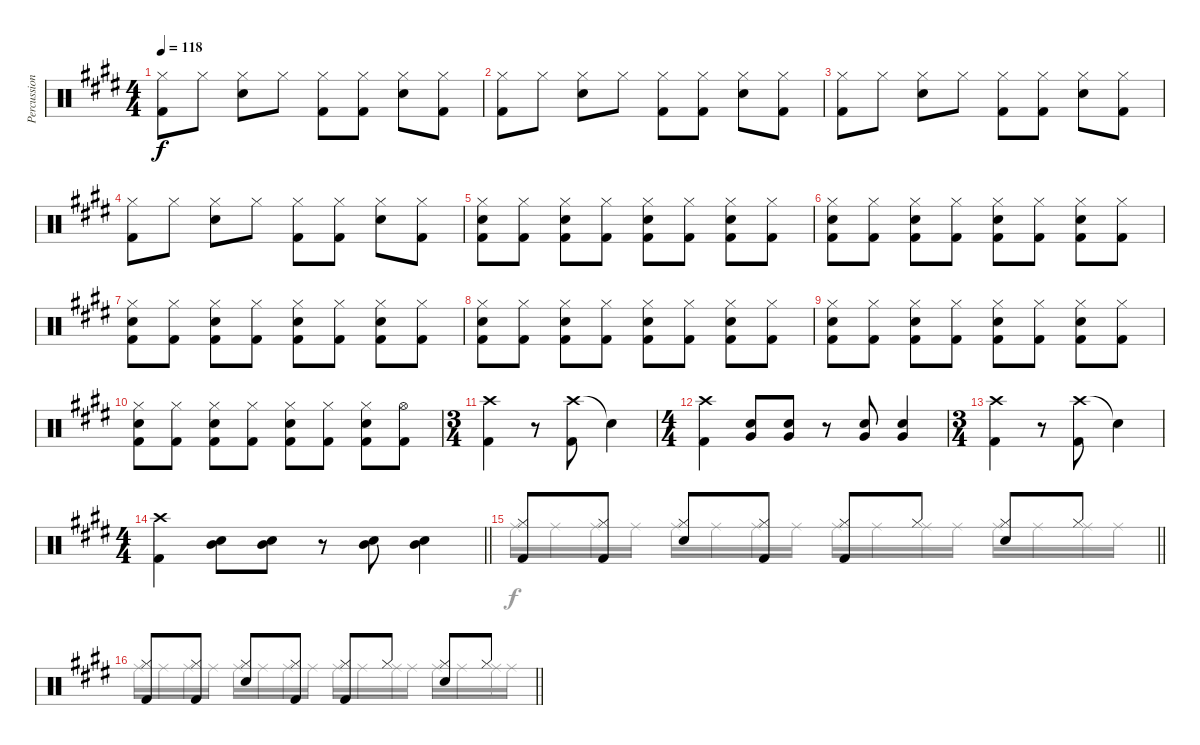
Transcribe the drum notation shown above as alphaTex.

\track ("Percussion" "Percussion") {instrument percussion}
\staff {score}
\articulation defaults
\voice
\ts (4 4)
\tempo 118
\clef neutral
\ks e
("Hi-Hat (closed)" "Kick (hit) 2").8{dy f} "Hi-Hat (closed)".8 ("Hi-Hat (closed)" "Snare (hit) 2").8 "Hi-Hat (closed)".8 ("Hi-Hat (closed)" "Kick (hit) 2").8 ("Hi-Hat (closed)" "Kick (hit) 2").8 ("Hi-Hat (closed)" "Snare (hit) 2").8 ("Hi-Hat (closed)" "Kick (hit) 2").8 |
("Hi-Hat (closed)" "Kick (hit) 2").8 "Hi-Hat (closed)".8 ("Hi-Hat (closed)" "Snare (hit) 2").8 "Hi-Hat (closed)".8 ("Hi-Hat (closed)" "Kick (hit) 2").8 ("Hi-Hat (closed)" "Kick (hit) 2").8 ("Hi-Hat (closed)" "Snare (hit) 2").8 ("Hi-Hat (closed)" "Kick (hit) 2").8 |
("Hi-Hat (closed)" "Kick (hit) 2").8 "Hi-Hat (closed)".8 ("Hi-Hat (closed)" "Snare (hit) 2").8 "Hi-Hat (closed)".8 ("Hi-Hat (closed)" "Kick (hit) 2").8 ("Hi-Hat (closed)" "Kick (hit) 2").8 ("Hi-Hat (closed)" "Snare (hit) 2").8 ("Hi-Hat (closed)" "Kick (hit) 2").8 |
("Hi-Hat (closed)" "Kick (hit) 2").8 "Hi-Hat (closed)".8 ("Hi-Hat (closed)" "Snare (hit) 2").8 "Hi-Hat (closed)".8 ("Hi-Hat (closed)" "Kick (hit) 2").8 ("Hi-Hat (closed)" "Kick (hit) 2").8 ("Hi-Hat (closed)" "Snare (hit) 2").8 ("Hi-Hat (closed)" "Kick (hit) 2").8 |
("Hi-Hat (closed)" "Snare (hit) 2" "Kick (hit) 2").8 ("Hi-Hat (closed)" "Kick (hit) 2").8 ("Hi-Hat (closed)" "Snare (hit) 2" "Kick (hit) 2").8 ("Hi-Hat (closed)" "Kick (hit) 2").8 ("Hi-Hat (closed)" "Snare (hit) 2" "Kick (hit) 2").8 ("Hi-Hat (closed)" "Kick (hit) 2").8 ("Hi-Hat (closed)" "Snare (hit) 2" "Kick (hit) 2").8 ("Hi-Hat (closed)" "Kick (hit) 2").8 |
("Hi-Hat (closed)" "Snare (hit) 2" "Kick (hit) 2").8 ("Hi-Hat (closed)" "Kick (hit) 2").8 ("Hi-Hat (closed)" "Snare (hit) 2" "Kick (hit) 2").8 ("Hi-Hat (closed)" "Kick (hit) 2").8 ("Hi-Hat (closed)" "Snare (hit) 2" "Kick (hit) 2").8 ("Hi-Hat (closed)" "Kick (hit) 2").8 ("Hi-Hat (closed)" "Snare (hit) 2" "Kick (hit) 2").8 ("Hi-Hat (closed)" "Kick (hit) 2").8 |
("Hi-Hat (closed)" "Snare (hit) 2" "Kick (hit) 2").8 ("Hi-Hat (closed)" "Kick (hit) 2").8 ("Hi-Hat (closed)" "Snare (hit) 2" "Kick (hit) 2").8 ("Hi-Hat (closed)" "Kick (hit) 2").8 ("Hi-Hat (closed)" "Snare (hit) 2" "Kick (hit) 2").8 ("Hi-Hat (closed)" "Kick (hit) 2").8 ("Hi-Hat (closed)" "Snare (hit) 2" "Kick (hit) 2").8 ("Hi-Hat (closed)" "Kick (hit) 2").8 |
("Hi-Hat (closed)" "Snare (hit) 2" "Kick (hit) 2").8 ("Hi-Hat (closed)" "Kick (hit) 2").8 ("Hi-Hat (closed)" "Snare (hit) 2" "Kick (hit) 2").8 ("Hi-Hat (closed)" "Kick (hit) 2").8 ("Hi-Hat (closed)" "Snare (hit) 2" "Kick (hit) 2").8 ("Hi-Hat (closed)" "Kick (hit) 2").8 ("Hi-Hat (closed)" "Snare (hit) 2" "Kick (hit) 2").8 ("Hi-Hat (closed)" "Kick (hit) 2").8 |
("Hi-Hat (closed)" "Snare (hit) 2" "Kick (hit) 2").8 ("Hi-Hat (closed)" "Kick (hit) 2").8 ("Hi-Hat (closed)" "Snare (hit) 2" "Kick (hit) 2").8 ("Hi-Hat (closed)" "Kick (hit) 2").8 ("Hi-Hat (closed)" "Snare (hit) 2" "Kick (hit) 2").8 ("Hi-Hat (closed)" "Kick (hit) 2").8 ("Hi-Hat (closed)" "Snare (hit) 2" "Kick (hit) 2").8 ("Hi-Hat (closed)" "Kick (hit) 2").8 |
("Hi-Hat (closed)" "Snare (hit) 2" "Kick (hit) 2").8 ("Hi-Hat (closed)" "Kick (hit) 2").8 ("Hi-Hat (closed)" "Snare (hit) 2" "Kick (hit) 2").8 ("Hi-Hat (closed)" "Kick (hit) 2").8 ("Hi-Hat (closed)" "Snare (hit) 2" "Kick (hit) 2").8 ("Hi-Hat (closed)" "Kick (hit) 2").8 ("Hi-Hat (closed)" "Snare (hit) 2" "Kick (hit) 2").8 ("Hi-Hat (open)" "Kick (hit) 2").8 |
\ts (3 4)
("Crash high (hit)" "Kick (hit) 2").4 r.8 ("Crash high (hit)" "Kick (hit) 2").8 "Snare (hit)"{t}.4 |
\ts (4 4)
("Crash high (hit)" "Kick (hit) 2").4 ("Snare (hit) 2" "Very Low Tom (hit)").8 ("Snare (hit) 2" "Very Low Tom (hit)").8 r.8 ("Snare (hit) 2" "Very Low Tom (hit)").8 ("Snare (hit) 2" "Very Low Tom (hit)").4 |
\ts (3 4)
("Crash high (hit)" "Kick (hit) 2").4 r.8 ("Crash high (hit)" "Kick (hit) 2").8 "Snare (hit)"{t}.4 |
\ts (4 4)
\barLineRight lightlight
("Crash high (hit)" "Kick (hit) 2").4 ("Snare (hit) 2" "Mid Tom (hit)").8 ("Snare (hit) 2" "Mid Tom (hit)").8 r.8 ("Snare (hit) 2" "Mid Tom (hit)").8 ("Snare (hit) 2" "Mid Tom (hit)").4 |
\barLineRight lightlight
("Hi-Hat (closed)" "Kick (hit) 2").8 ("Hi-Hat (closed)" "Kick (hit) 2").8 ("Hi-Hat (closed)" "Snare (hit) 2").8 ("Hi-Hat (closed)" "Kick (hit) 2").8 ("Hi-Hat (closed)" "Kick (hit) 2").8 "Hi-Hat (closed)".8 ("Hi-Hat (closed)" "Snare (hit) 2").8 "Hi-Hat (closed)".8 |
\barLineRight lightlight
("Hi-Hat (closed)" "Kick (hit) 2").8 ("Hi-Hat (closed)" "Kick (hit) 2").8 ("Hi-Hat (closed)" "Snare (hit) 2").8 ("Hi-Hat (closed)" "Kick (hit) 2").8 ("Hi-Hat (closed)" "Kick (hit) 2").8 "Hi-Hat (closed)".8 ("Hi-Hat (closed)" "Snare (hit) 2").8 "Hi-Hat (closed)".8
\voice
\clef neutral
\ottava regular
\simile none
\ks e
|
|
|
|
|
|
|
|
|
|
|
|
|
\barLineRight lightlight
|
\barLineRight lightlight "Ride (middle)".16 "Ride (middle)".16 "Ride (middle)".16 "Ride (middle)".16 "Ride (middle)".16 "Ride (middle)".16 "Ride (middle)".16 "Ride (middle)".16 "Ride (middle)".16 "Ride (middle)".16 "Ride (middle)".16 "Ride (middle)".16 "Ride (middle)".16 "Ride (middle)".16 "Ride (middle)".16 "Ride (middle)".16
|
\barLineRight lightlight "Ride (middle)".16 "Ride (middle)".16 "Ride (middle)".16 "Ride (middle)".16 "Ride (middle)".16 "Ride (middle)".16 "Ride (middle)".16 "Ride (middle)".16 "Ride (middle)".16 "Ride (middle)".16 "Ride (middle)".16 "Ride (middle)".16 "Ride (middle)".16 "Ride (middle)".16 "Ride (middle)".16 "Ride (middle)".16
